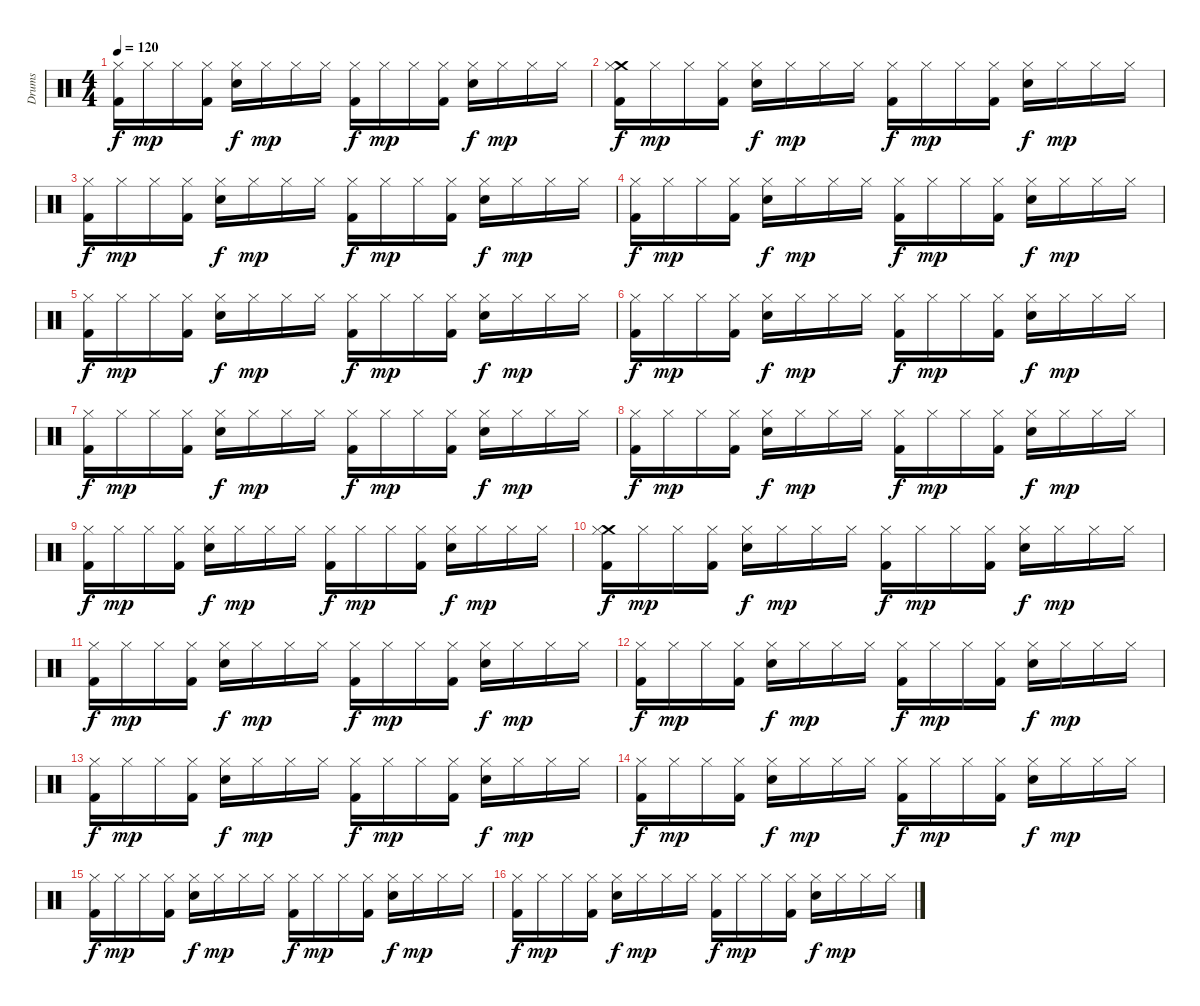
\track ("Drums" "Drums") {instrument percussion}
\staff {score}
\articulation defaults
\ts (4 4)
\tempo 120
\clef neutral
\ks c
("Kick (hit) 2" "Hi-Hat (closed)").16{dy f} "Hi-Hat (closed)".16{dy mp} "Hi-Hat (closed)".16 ("Kick (hit) 2" "Hi-Hat (closed)").16 ("Snare (hit) 2" "Hi-Hat (closed)").16{dy f} "Hi-Hat (closed)".16{dy mp} "Hi-Hat (closed)".16 "Hi-Hat (closed)".16 ("Kick (hit) 2" "Hi-Hat (closed)").16{dy f} "Hi-Hat (closed)".16{dy mp} "Hi-Hat (closed)".16 ("Kick (hit) 2" "Hi-Hat (closed)").16 ("Snare (hit) 2" "Hi-Hat (closed)").16{dy f} "Hi-Hat (closed)".16{dy mp} "Hi-Hat (closed)".16 "Hi-Hat (closed)".16 |
("Kick (hit) 2" "Crash medium (hit)" "Hi-Hat (closed)").16{dy f} "Hi-Hat (closed)".16{dy mp} "Hi-Hat (closed)".16 ("Kick (hit) 2" "Hi-Hat (closed)").16 ("Snare (hit) 2" "Hi-Hat (closed)").16{dy f} "Hi-Hat (closed)".16{dy mp} "Hi-Hat (closed)".16 "Hi-Hat (closed)".16 ("Kick (hit) 2" "Hi-Hat (closed)").16{dy f} "Hi-Hat (closed)".16{dy mp} "Hi-Hat (closed)".16 ("Kick (hit) 2" "Hi-Hat (closed)").16 ("Snare (hit) 2" "Hi-Hat (closed)").16{dy f} "Hi-Hat (closed)".16{dy mp} "Hi-Hat (closed)".16 "Hi-Hat (closed)".16 |
("Kick (hit) 2" "Hi-Hat (closed)").16{dy f} "Hi-Hat (closed)".16{dy mp} "Hi-Hat (closed)".16 ("Kick (hit) 2" "Hi-Hat (closed)").16 ("Snare (hit) 2" "Hi-Hat (closed)").16{dy f} "Hi-Hat (closed)".16{dy mp} "Hi-Hat (closed)".16 "Hi-Hat (closed)".16 ("Kick (hit) 2" "Hi-Hat (closed)").16{dy f} "Hi-Hat (closed)".16{dy mp} "Hi-Hat (closed)".16 ("Kick (hit) 2" "Hi-Hat (closed)").16 ("Snare (hit) 2" "Hi-Hat (closed)").16{dy f} "Hi-Hat (closed)".16{dy mp} "Hi-Hat (closed)".16 "Hi-Hat (closed)".16 |
("Kick (hit) 2" "Hi-Hat (closed)").16{dy f} "Hi-Hat (closed)".16{dy mp} "Hi-Hat (closed)".16 ("Kick (hit) 2" "Hi-Hat (closed)").16 ("Snare (hit) 2" "Hi-Hat (closed)").16{dy f} "Hi-Hat (closed)".16{dy mp} "Hi-Hat (closed)".16 "Hi-Hat (closed)".16 ("Kick (hit) 2" "Hi-Hat (closed)").16{dy f} "Hi-Hat (closed)".16{dy mp} "Hi-Hat (closed)".16 ("Kick (hit) 2" "Hi-Hat (closed)").16 ("Snare (hit) 2" "Hi-Hat (closed)").16{dy f} "Hi-Hat (closed)".16{dy mp} "Hi-Hat (closed)".16 "Hi-Hat (closed)".16 |
("Kick (hit) 2" "Hi-Hat (closed)").16{dy f} "Hi-Hat (closed)".16{dy mp} "Hi-Hat (closed)".16 ("Kick (hit) 2" "Hi-Hat (closed)").16 ("Snare (hit) 2" "Hi-Hat (closed)").16{dy f} "Hi-Hat (closed)".16{dy mp} "Hi-Hat (closed)".16 "Hi-Hat (closed)".16 ("Kick (hit) 2" "Hi-Hat (closed)").16{dy f} "Hi-Hat (closed)".16{dy mp} "Hi-Hat (closed)".16 ("Kick (hit) 2" "Hi-Hat (closed)").16 ("Snare (hit) 2" "Hi-Hat (closed)").16{dy f} "Hi-Hat (closed)".16{dy mp} "Hi-Hat (closed)".16 "Hi-Hat (closed)".16 |
("Kick (hit) 2" "Hi-Hat (closed)").16{dy f} "Hi-Hat (closed)".16{dy mp} "Hi-Hat (closed)".16 ("Kick (hit) 2" "Hi-Hat (closed)").16 ("Snare (hit) 2" "Hi-Hat (closed)").16{dy f} "Hi-Hat (closed)".16{dy mp} "Hi-Hat (closed)".16 "Hi-Hat (closed)".16 ("Kick (hit) 2" "Hi-Hat (closed)").16{dy f} "Hi-Hat (closed)".16{dy mp} "Hi-Hat (closed)".16 ("Kick (hit) 2" "Hi-Hat (closed)").16 ("Snare (hit) 2" "Hi-Hat (closed)").16{dy f} "Hi-Hat (closed)".16{dy mp} "Hi-Hat (closed)".16 "Hi-Hat (closed)".16 |
("Kick (hit) 2" "Hi-Hat (closed)").16{dy f} "Hi-Hat (closed)".16{dy mp} "Hi-Hat (closed)".16 ("Kick (hit) 2" "Hi-Hat (closed)").16 ("Snare (hit) 2" "Hi-Hat (closed)").16{dy f} "Hi-Hat (closed)".16{dy mp} "Hi-Hat (closed)".16 "Hi-Hat (closed)".16 ("Kick (hit) 2" "Hi-Hat (closed)").16{dy f} "Hi-Hat (closed)".16{dy mp} "Hi-Hat (closed)".16 ("Kick (hit) 2" "Hi-Hat (closed)").16 ("Snare (hit) 2" "Hi-Hat (closed)").16{dy f} "Hi-Hat (closed)".16{dy mp} "Hi-Hat (closed)".16 "Hi-Hat (closed)".16 |
("Kick (hit) 2" "Hi-Hat (closed)").16{dy f} "Hi-Hat (closed)".16{dy mp} "Hi-Hat (closed)".16 ("Kick (hit) 2" "Hi-Hat (closed)").16 ("Snare (hit) 2" "Hi-Hat (closed)").16{dy f} "Hi-Hat (closed)".16{dy mp} "Hi-Hat (closed)".16 "Hi-Hat (closed)".16 ("Kick (hit) 2" "Hi-Hat (closed)").16{dy f} "Hi-Hat (closed)".16{dy mp} "Hi-Hat (closed)".16 ("Kick (hit) 2" "Hi-Hat (closed)").16 ("Snare (hit) 2" "Hi-Hat (closed)").16{dy f} "Hi-Hat (closed)".16{dy mp} "Hi-Hat (closed)".16 "Hi-Hat (closed)".16 |
("Kick (hit) 2" "Hi-Hat (closed)").16{dy f} "Hi-Hat (closed)".16{dy mp} "Hi-Hat (closed)".16 ("Kick (hit) 2" "Hi-Hat (closed)").16 ("Snare (hit) 2" "Hi-Hat (closed)").16{dy f} "Hi-Hat (closed)".16{dy mp} "Hi-Hat (closed)".16 "Hi-Hat (closed)".16 ("Kick (hit) 2" "Hi-Hat (closed)").16{dy f} "Hi-Hat (closed)".16{dy mp} "Hi-Hat (closed)".16 ("Kick (hit) 2" "Hi-Hat (closed)").16 ("Snare (hit) 2" "Hi-Hat (closed)").16{dy f} "Hi-Hat (closed)".16{dy mp} "Hi-Hat (closed)".16 "Hi-Hat (closed)".16 |
("Kick (hit) 2" "Crash medium (hit)" "Hi-Hat (closed)").16{dy f} "Hi-Hat (closed)".16{dy mp} "Hi-Hat (closed)".16 ("Kick (hit) 2" "Hi-Hat (closed)").16 ("Snare (hit) 2" "Hi-Hat (closed)").16{dy f} "Hi-Hat (closed)".16{dy mp} "Hi-Hat (closed)".16 "Hi-Hat (closed)".16 ("Kick (hit) 2" "Hi-Hat (closed)").16{dy f} "Hi-Hat (closed)".16{dy mp} "Hi-Hat (closed)".16 ("Kick (hit) 2" "Hi-Hat (closed)").16 ("Snare (hit) 2" "Hi-Hat (closed)").16{dy f} "Hi-Hat (closed)".16{dy mp} "Hi-Hat (closed)".16 "Hi-Hat (closed)".16 |
("Kick (hit) 2" "Hi-Hat (closed)").16{dy f} "Hi-Hat (closed)".16{dy mp} "Hi-Hat (closed)".16 ("Kick (hit) 2" "Hi-Hat (closed)").16 ("Snare (hit) 2" "Hi-Hat (closed)").16{dy f} "Hi-Hat (closed)".16{dy mp} "Hi-Hat (closed)".16 "Hi-Hat (closed)".16 ("Kick (hit) 2" "Hi-Hat (closed)").16{dy f} "Hi-Hat (closed)".16{dy mp} "Hi-Hat (closed)".16 ("Kick (hit) 2" "Hi-Hat (closed)").16 ("Snare (hit) 2" "Hi-Hat (closed)").16{dy f} "Hi-Hat (closed)".16{dy mp} "Hi-Hat (closed)".16 "Hi-Hat (closed)".16 |
("Kick (hit) 2" "Hi-Hat (closed)").16{dy f} "Hi-Hat (closed)".16{dy mp} "Hi-Hat (closed)".16 ("Kick (hit) 2" "Hi-Hat (closed)").16 ("Snare (hit) 2" "Hi-Hat (closed)").16{dy f} "Hi-Hat (closed)".16{dy mp} "Hi-Hat (closed)".16 "Hi-Hat (closed)".16 ("Kick (hit) 2" "Hi-Hat (closed)").16{dy f} "Hi-Hat (closed)".16{dy mp} "Hi-Hat (closed)".16 ("Kick (hit) 2" "Hi-Hat (closed)").16 ("Snare (hit) 2" "Hi-Hat (closed)").16{dy f} "Hi-Hat (closed)".16{dy mp} "Hi-Hat (closed)".16 "Hi-Hat (closed)".16 |
("Kick (hit) 2" "Hi-Hat (closed)").16{dy f} "Hi-Hat (closed)".16{dy mp} "Hi-Hat (closed)".16 ("Kick (hit) 2" "Hi-Hat (closed)").16 ("Snare (hit) 2" "Hi-Hat (closed)").16{dy f} "Hi-Hat (closed)".16{dy mp} "Hi-Hat (closed)".16 "Hi-Hat (closed)".16 ("Kick (hit) 2" "Hi-Hat (closed)").16{dy f} "Hi-Hat (closed)".16{dy mp} "Hi-Hat (closed)".16 ("Kick (hit) 2" "Hi-Hat (closed)").16 ("Snare (hit) 2" "Hi-Hat (closed)").16{dy f} "Hi-Hat (closed)".16{dy mp} "Hi-Hat (closed)".16 "Hi-Hat (closed)".16 |
("Kick (hit) 2" "Hi-Hat (closed)").16{dy f} "Hi-Hat (closed)".16{dy mp} "Hi-Hat (closed)".16 ("Kick (hit) 2" "Hi-Hat (closed)").16 ("Snare (hit) 2" "Hi-Hat (closed)").16{dy f} "Hi-Hat (closed)".16{dy mp} "Hi-Hat (closed)".16 "Hi-Hat (closed)".16 ("Kick (hit) 2" "Hi-Hat (closed)").16{dy f} "Hi-Hat (closed)".16{dy mp} "Hi-Hat (closed)".16 ("Kick (hit) 2" "Hi-Hat (closed)").16 ("Snare (hit) 2" "Hi-Hat (closed)").16{dy f} "Hi-Hat (closed)".16{dy mp} "Hi-Hat (closed)".16 "Hi-Hat (closed)".16 |
("Kick (hit) 2" "Hi-Hat (closed)").16{dy f} "Hi-Hat (closed)".16{dy mp} "Hi-Hat (closed)".16 ("Kick (hit) 2" "Hi-Hat (closed)").16 ("Snare (hit) 2" "Hi-Hat (closed)").16{dy f} "Hi-Hat (closed)".16{dy mp} "Hi-Hat (closed)".16 "Hi-Hat (closed)".16 ("Kick (hit) 2" "Hi-Hat (closed)").16{dy f} "Hi-Hat (closed)".16{dy mp} "Hi-Hat (closed)".16 ("Kick (hit) 2" "Hi-Hat (closed)").16 ("Snare (hit) 2" "Hi-Hat (closed)").16{dy f} "Hi-Hat (closed)".16{dy mp} "Hi-Hat (closed)".16 "Hi-Hat (closed)".16 |
("Kick (hit) 2" "Hi-Hat (closed)").16{dy f} "Hi-Hat (closed)".16{dy mp} "Hi-Hat (closed)".16 ("Kick (hit) 2" "Hi-Hat (closed)").16 ("Snare (hit) 2" "Hi-Hat (closed)").16{dy f} "Hi-Hat (closed)".16{dy mp} "Hi-Hat (closed)".16 "Hi-Hat (closed)".16 ("Kick (hit) 2" "Hi-Hat (closed)").16{dy f} "Hi-Hat (closed)".16{dy mp} "Hi-Hat (closed)".16 ("Kick (hit) 2" "Hi-Hat (closed)").16 ("Snare (hit) 2" "Hi-Hat (closed)").16{dy f} "Hi-Hat (closed)".16{dy mp} "Hi-Hat (closed)".16 "Hi-Hat (closed)".16
